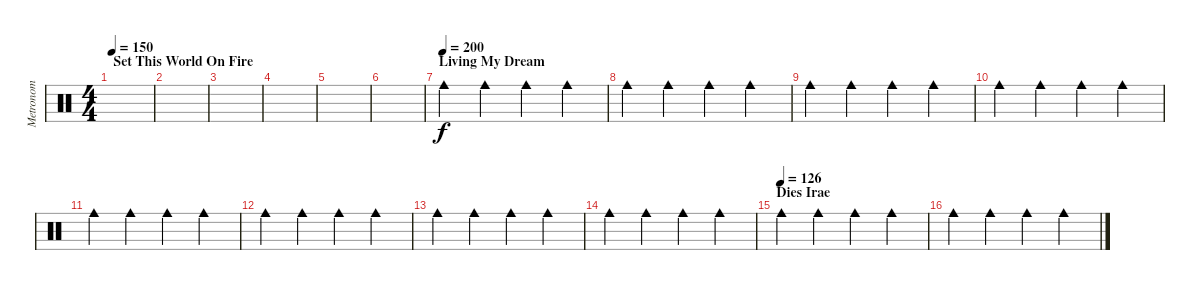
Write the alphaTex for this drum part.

\track ("Metronom" "Metronom") {instrument percussion}
\staff {score}
\articulation defaults
\ts (4 4)
\section ("" "Set This World On Fire")
\tempo 150
\clef neutral
\ks c
|
|
|
|
|
|
\section ("" "Living My Dream")
\tempo (200)
"Cowbell medium (hit)".4 "Cowbell medium (hit)".4 "Cowbell medium (hit)".4 "Cowbell medium (hit)".4 |
"Cowbell medium (hit)".4 "Cowbell medium (hit)".4 "Cowbell medium (hit)".4 "Cowbell medium (hit)".4 |
"Cowbell medium (hit)".4 "Cowbell medium (hit)".4 "Cowbell medium (hit)".4 "Cowbell medium (hit)".4 |
"Cowbell medium (hit)".4 "Cowbell medium (hit)".4 "Cowbell medium (hit)".4 "Cowbell medium (hit)".4 |
"Cowbell medium (hit)".4 "Cowbell medium (hit)".4 "Cowbell medium (hit)".4 "Cowbell medium (hit)".4 |
"Cowbell medium (hit)".4 "Cowbell medium (hit)".4 "Cowbell medium (hit)".4 "Cowbell medium (hit)".4 |
"Cowbell medium (hit)".4 "Cowbell medium (hit)".4 "Cowbell medium (hit)".4 "Cowbell medium (hit)".4 |
"Cowbell medium (hit)".4 "Cowbell medium (hit)".4 "Cowbell medium (hit)".4 "Cowbell medium (hit)".4 |
\section ("" "Dies Irae")
\tempo (126)
"Cowbell medium (hit)".4 "Cowbell medium (hit)".4 "Cowbell medium (hit)".4 "Cowbell medium (hit)".4 |
"Cowbell medium (hit)".4 "Cowbell medium (hit)".4 "Cowbell medium (hit)".4 "Cowbell medium (hit)".4
